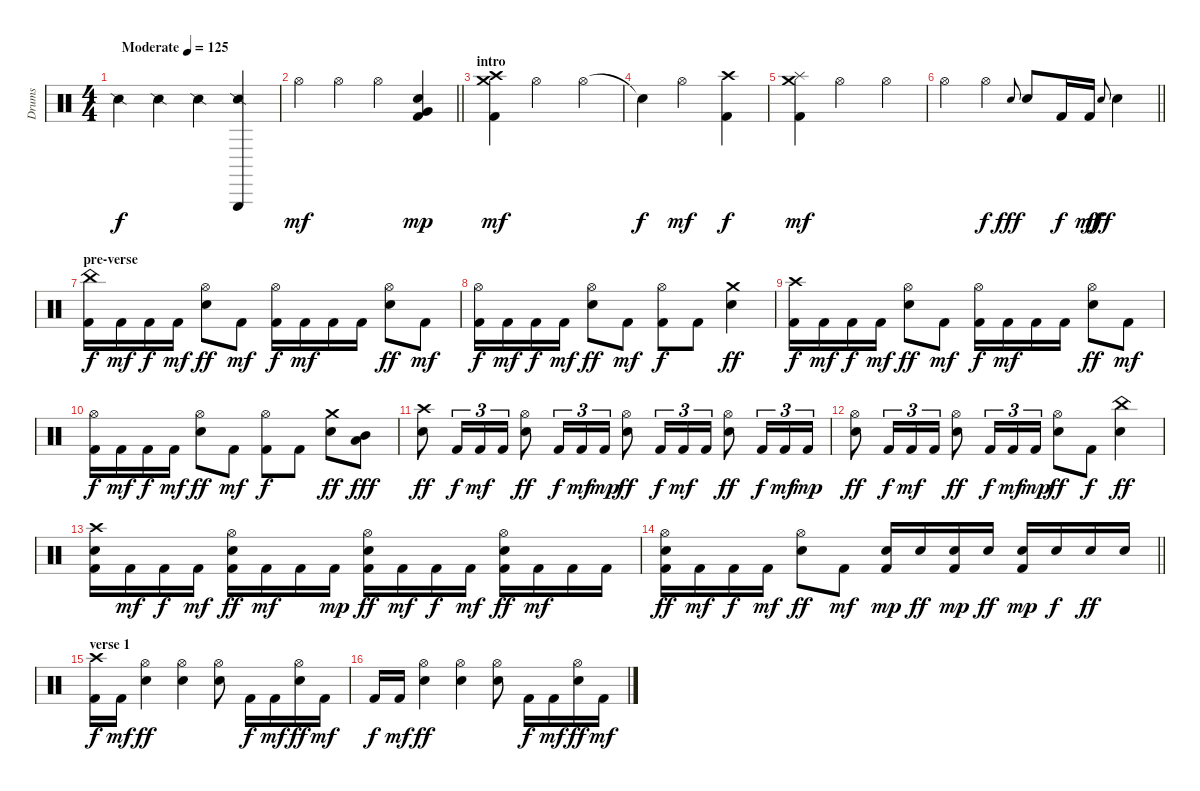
\track ("Drums" "Drums") {instrument percussion}
\staff {score}
\articulation defaults
\ts (4 4)
\tempo (125 "Moderate")
\clef neutral
\ks c "Snare (side stick) 2".4{dy f} "Snare (side stick) 2".4 "Snare (side stick) 2".4
("Triangle (hit)" "Snare (side stick) 2").4 |
\barLineRight lightlight "Hi-Hat (open)".4{dy mf} "Hi-Hat (open)".4 "Hi-Hat (open)".4
("Very Low Tom (hit)" "Snare (hit) 2" "Kick (hit) 2").4{dy mp} |
\section ("" "intro")
("Crash medium (hit)" "Crash high (hit)" "Kick (hit) 2").4{dy mf} "Hi-Hat (open)".2 "Hi-Hat (open)".4 |
"Snare (hit)"{t}.4{dy f} "Hi-Hat (open)".2{dy mf} ("Crash high (hit)" "Kick (hit) 2").4{dy f} |
("Crash medium (hit)" "Splash (hit)" "Kick (hit) 2").4{dy mf} "Hi-Hat (open)".2 "Hi-Hat (open)".4 |
\barLineRight lightlight "Hi-Hat (open)".4 "Hi-Hat (open)".4{dy f} "Snare (hit) 2".8{gr onbeat dy fff} "Snare (hit) 2".8 "Kick (hit) 2".16{dy f} "Kick (hit) 2".16{dy mf} "Snare (hit) 2".8{gr onbeat dy fff} "Snare (hit) 2".4
|
\section ("" "pre-verse")
("China (hit)" "Kick (hit) 2").16{dy f} "Kick (hit) 2".16{dy mf} "Kick (hit) 2".16{dy f} "Kick (hit) 2".16{dy mf} ("Hi-Hat (open)" "Snare (hit) 2").8{dy ff} "Kick (hit) 2".8{dy mf} ("Hi-Hat (open)" "Kick (hit) 2").16{dy f} "Kick (hit) 2".16{dy mf} "Kick (hit) 2".16 "Kick (hit) 2".16 ("Hi-Hat (open)" "Snare (hit) 2").8{dy ff} "Kick (hit) 2".8{dy mf} |
("Hi-Hat (open)" "Kick (hit) 2").16{dy f} "Kick (hit) 2".16{dy mf} "Kick (hit) 2".16{dy f} "Kick (hit) 2".16{dy mf} ("Hi-Hat (open)" "Snare (hit) 2").8{dy ff} "Kick (hit) 2".8{dy mf} ("Hi-Hat (open)" "Kick (hit) 2").8{dy f} "Kick (hit) 2".8 ("Crash medium (hit)" "Snare (hit) 2").4{dy ff} |
("Crash high (hit)" "Kick (hit) 2").16{dy f} "Kick (hit) 2".16{dy mf} "Kick (hit) 2".16{dy f} "Kick (hit) 2".16{dy mf} ("Hi-Hat (open)" "Snare (hit) 2").8{dy ff} "Kick (hit) 2".8{dy mf} ("Hi-Hat (open)" "Kick (hit) 2").16{dy f} "Kick (hit) 2".16{dy mf} "Kick (hit) 2".16 "Kick (hit) 2".16 ("Hi-Hat (open)" "Snare (hit) 2").8{dy ff} "Kick (hit) 2".8{dy mf} |
("Hi-Hat (open)" "Kick (hit) 2").16{dy f} "Kick (hit) 2".16{dy mf} "Kick (hit) 2".16{dy f} "Kick (hit) 2".16{dy mf} ("Hi-Hat (open)" "Snare (hit) 2").8{dy ff} "Kick (hit) 2".8{dy mf} ("Hi-Hat (open)" "Kick (hit) 2").8{dy f} "Kick (hit) 2".8 ("Crash medium (hit)" "Snare (hit) 2").8{dy ff} ("Low Tom (hit)" "Mid Tom (hit)").8{dy fff} |
("Crash high (hit)" "Snare (hit) 2").8{dy ff} "Kick (hit) 2".16{tu (3 2) dy f} "Kick (hit) 2".16{tu (3 2) dy mf} "Kick (hit) 2".16{tu (3 2)} ("Hi-Hat (open)" "Snare (hit) 2").8{dy ff} "Kick (hit) 2".16{tu (3 2) dy f} "Kick (hit) 2".16{tu (3 2) dy mf} "Kick (hit) 2".16{tu (3 2) dy mp} ("Hi-Hat (open)" "Snare (hit) 2").8{dy ff} "Kick (hit) 2".16{tu (3 2) dy f} "Kick (hit) 2".16{tu (3 2) dy mf} "Kick (hit) 2".16{tu (3 2)} ("Hi-Hat (open)" "Snare (hit) 2").8{dy ff} "Kick (hit) 2".16{tu (3 2) dy f} "Kick (hit) 2".16{tu (3 2) dy mf} "Kick (hit) 2".16{tu (3 2) dy mp} |
("Hi-Hat (open)" "Snare (hit) 2").8{dy ff} "Kick (hit) 2".16{tu (3 2) dy f} "Kick (hit) 2".16{tu (3 2) dy mf} "Kick (hit) 2".16{tu (3 2)} ("Hi-Hat (open)" "Snare (hit) 2").8{dy ff} "Kick (hit) 2".16{tu (3 2) dy f} "Kick (hit) 2".16{tu (3 2) dy mf} "Kick (hit) 2".16{tu (3 2) dy mp} ("Hi-Hat (open)" "Snare (hit) 2").8{dy ff} "Kick (hit) 2".8{dy f} ("China (hit)" "Snare (hit) 2").4{dy ff} |
("Crash high (hit)" "Snare (hit) 2" "Kick (hit) 2").16 "Kick (hit) 2".16{dy mf} "Kick (hit) 2".16{dy f} "Kick (hit) 2".16{dy mf} ("Hi-Hat (open)" "Snare (hit) 2" "Kick (hit) 2").16{dy ff} "Kick (hit) 2".16{dy mf} "Kick (hit) 2".16 "Kick (hit) 2".16{dy mp} ("Hi-Hat (open)" "Snare (hit) 2" "Kick (hit) 2").16{dy ff} "Kick (hit) 2".16{dy mf} "Kick (hit) 2".16{dy f} "Kick (hit) 2".16{dy mf} ("Hi-Hat (open)" "Snare (hit) 2" "Kick (hit) 2").16{dy ff} "Kick (hit) 2".16{dy mf} "Kick (hit) 2".16 "Kick (hit) 2".16 |
\barLineRight lightlight
("Hi-Hat (open)" "Snare (hit) 2" "Kick (hit) 2").16{dy ff} "Kick (hit) 2".16{dy mf} "Kick (hit) 2".16{dy f} "Kick (hit) 2".16{dy mf} ("Hi-Hat (open)" "Snare (hit) 2").8{dy ff} "Kick (hit) 2".8{dy mf} ("Snare (hit) 2" "Kick (hit) 2").16{dy mp} "Snare (hit) 2".16{dy ff} ("Snare (hit) 2" "Kick (hit) 2").16{dy mp} "Snare (hit) 2".16{dy ff} ("Snare (hit) 2" "Kick (hit) 2").16{dy mp} "Snare (hit) 2".16{dy f} "Snare (hit) 2".16{dy ff} "Snare (hit) 2".16 |
\section ("" "verse 1")
("Crash high (hit)" "Kick (hit) 2").16{dy f} "Kick (hit) 2".16{dy mf} ("Hi-Hat (open)" "Snare (hit) 2").4{dy ff} ("Hi-Hat (open)" "Snare (hit) 2").4 ("Hi-Hat (open)" "Snare (hit) 2").8 "Kick (hit) 2".16{dy f} "Kick (hit) 2".16{dy mf} ("Hi-Hat (open)" "Snare (hit) 2").16{dy ff} "Kick (hit) 2".16{dy mf} |
"Kick (hit) 2".16{dy f} "Kick (hit) 2".16{dy mf} ("Hi-Hat (open)" "Snare (hit) 2").4{dy ff} ("Hi-Hat (open)" "Snare (hit) 2").4 ("Hi-Hat (open)" "Snare (hit) 2").8 "Kick (hit) 2".16{dy f} "Kick (hit) 2".16{dy mf} ("Hi-Hat (open)" "Snare (hit) 2").16{dy ff} "Kick (hit) 2".16{dy mf}
